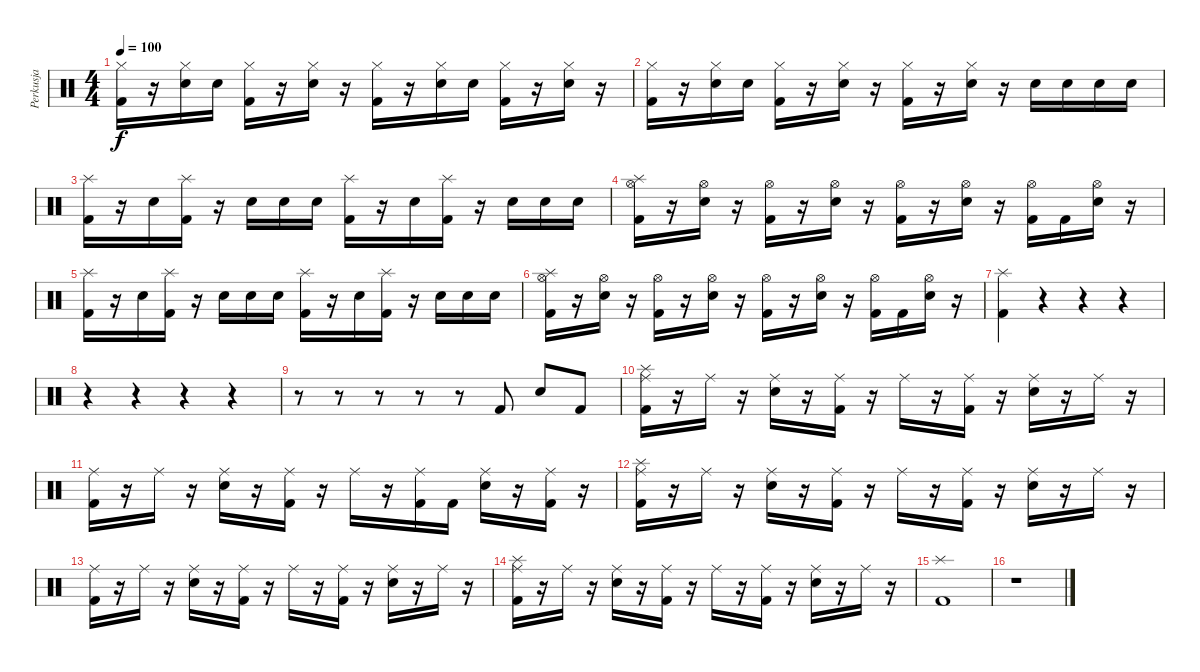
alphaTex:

\track ("Perkusja" "Perkusja") {instrument percussion}
\staff {score}
\articulation defaults
\ts (4 4)
\tempo 100
\clef neutral
\ks c
("Hi-Hat (closed)" "Kick (hit) 2").16{dy f} r.16 ("Hi-Hat (closed)" "Electric Snare (hit)").16 "Electric Snare (hit)".16 ("Hi-Hat (closed)" "Kick (hit) 2").16 r.16 ("Hi-Hat (closed)" "Electric Snare (hit)").16 r.16 ("Hi-Hat (closed)" "Kick (hit) 2").16 r.16 ("Hi-Hat (closed)" "Electric Snare (hit)").16 "Electric Snare (hit)".16 ("Hi-Hat (closed)" "Kick (hit) 2").16 r.16 ("Hi-Hat (closed)" "Electric Snare (hit)").16 r.16 |
("Hi-Hat (closed)" "Kick (hit) 2").16 r.16 ("Hi-Hat (closed)" "Electric Snare (hit)").16 "Electric Snare (hit)".16 ("Hi-Hat (closed)" "Kick (hit) 2").16 r.16 ("Hi-Hat (closed)" "Electric Snare (hit)").16 r.16 ("Hi-Hat (closed)" "Kick (hit) 2").16 r.16 ("Hi-Hat (closed)" "Electric Snare (hit)").16 r.16 "Electric Snare (hit)".16 "Electric Snare (hit)".16 "Electric Snare (hit)".16 "Electric Snare (hit)".16 |
("Splash (hit)" "Kick (hit) 2").16 r.16 "Electric Snare (hit)".16 ("Splash (hit)" "Kick (hit) 2").16 r.16 "Electric Snare (hit)".16 "Electric Snare (hit)".16 "Electric Snare (hit)".16 ("Splash (hit)" "Kick (hit) 2").16 r.16 "Electric Snare (hit)".16 ("Splash (hit)" "Kick (hit) 2").16 r.16 "Electric Snare (hit)".16 "Electric Snare (hit)".16 "Electric Snare (hit)".16 |
("Splash (hit)" "Hi-Hat (open)" "Kick (hit) 2").16 r.16 ("Hi-Hat (open)" "Electric Snare (hit)").16 r.16 ("Hi-Hat (open)" "Kick (hit) 2").16 r.16 ("Hi-Hat (open)" "Electric Snare (hit)").16 r.16 ("Hi-Hat (open)" "Kick (hit) 2").16 r.16 ("Hi-Hat (open)" "Electric Snare (hit)").16 r.16 ("Hi-Hat (open)" "Kick (hit) 2").16 "Kick (hit) 2".16 ("Hi-Hat (open)" "Electric Snare (hit)").16 r.16 |
("Splash (hit)" "Kick (hit) 2").16 r.16 "Electric Snare (hit)".16 ("Splash (hit)" "Kick (hit) 2").16 r.16 "Electric Snare (hit)".16 "Electric Snare (hit)".16 "Electric Snare (hit)".16 ("Splash (hit)" "Kick (hit) 2").16 r.16 "Electric Snare (hit)".16 ("Splash (hit)" "Kick (hit) 2").16 r.16 "Electric Snare (hit)".16 "Electric Snare (hit)".16 "Electric Snare (hit)".16 |
("Splash (hit)" "Hi-Hat (open)" "Kick (hit) 2").16 r.16 ("Hi-Hat (open)" "Electric Snare (hit)").16 r.16 ("Hi-Hat (open)" "Kick (hit) 2").16 r.16 ("Hi-Hat (open)" "Electric Snare (hit)").16 r.16 ("Hi-Hat (open)" "Kick (hit) 2").16 r.16 ("Hi-Hat (open)" "Electric Snare (hit)").16 r.16 ("Hi-Hat (open)" "Kick (hit) 2").16 "Kick (hit) 2".16 ("Hi-Hat (open)" "Electric Snare (hit)").16 r.16 |
("Splash (hit)" "Kick (hit) 2").4 r.4 r.4 r.4 |
r.4 r.4 r.4 r.4 |
r.8 r.8 r.8 r.8 r.8 "Kick (hit) 2".8 "Electric Snare (hit)".8 "Kick (hit) 2".8 |
("Splash (hit)" "Ride (middle)" "Kick (hit) 2").16 r.16 "Ride (middle)".16 r.16 ("Ride (middle)" "Electric Snare (hit)").16 r.16 ("Ride (middle)" "Kick (hit) 2").16 r.16 "Ride (middle)".16 r.16 ("Ride (middle)" "Kick (hit) 2").16 r.16 ("Ride (middle)" "Electric Snare (hit)").16 r.16 "Ride (middle)".16 r.16 |
("Ride (middle)" "Kick (hit) 2").16 r.16 "Ride (middle)".16 r.16 ("Ride (middle)" "Electric Snare (hit)").16 r.16 ("Ride (middle)" "Kick (hit) 2").16 r.16 "Ride (middle)".16 r.16 ("Ride (middle)" "Kick (hit) 2").16 "Kick (hit) 2".16 ("Ride (middle)" "Electric Snare (hit)").16 r.16 ("Ride (middle)" "Kick (hit) 2").16 r.16 |
("Splash (hit)" "Ride (middle)" "Kick (hit) 2").16 r.16 "Ride (middle)".16 r.16 ("Ride (middle)" "Electric Snare (hit)").16 r.16 ("Ride (middle)" "Kick (hit) 2").16 r.16 "Ride (middle)".16 r.16 ("Ride (middle)" "Kick (hit) 2").16 r.16 ("Ride (middle)" "Electric Snare (hit)").16 r.16 "Ride (middle)".16 r.16 |
("Ride (middle)" "Kick (hit) 2").16 r.16 "Ride (middle)".16 r.16 ("Ride (middle)" "Electric Snare (hit)").16 r.16 ("Ride (middle)" "Kick (hit) 2").16 r.16 "Ride (middle)".16 r.16 ("Ride (middle)" "Kick (hit) 2").16 r.16 ("Ride (middle)" "Electric Snare (hit)").16 r.16 "Ride (middle)".16 r.16 |
("Splash (hit)" "Ride (middle)" "Kick (hit) 2").16 r.16 "Ride (middle)".16 r.16 ("Ride (middle)" "Electric Snare (hit)").16 r.16 ("Ride (middle)" "Kick (hit) 2").16 r.16 "Ride (middle)".16 r.16 ("Ride (middle)" "Kick (hit) 2").16 r.16 ("Ride (middle)" "Electric Snare (hit)").16 r.16 "Ride (middle)".16 r.16 |
("Splash (hit)" "Kick (hit) 2").1 |
r.1
